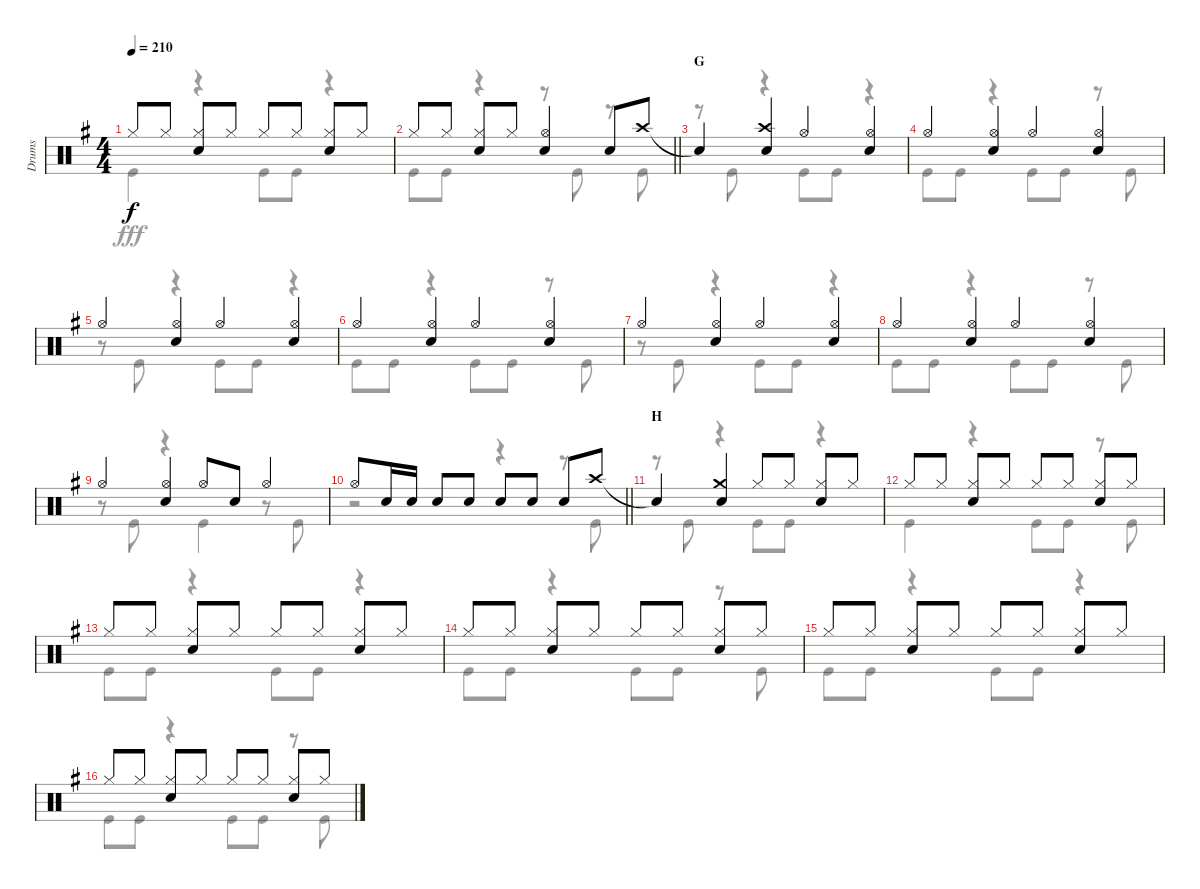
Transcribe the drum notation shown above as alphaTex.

\track ("Drums" "Drums") {instrument percussion}
\staff {score}
\articulation defaults
\voice
\ts (4 4)
\tempo 210
\clef neutral
\ks g "Hi-Hat (closed)".8{dy f} "Hi-Hat (closed)".8
("Hi-Hat (closed)" "Snare (hit) 2").8 "Hi-Hat (closed)".8 "Hi-Hat (closed)".8 "Hi-Hat (closed)".8 ("Hi-Hat (closed)" "Snare (hit) 2").8 "Hi-Hat (closed)".8 |
\barLineRight lightlight "Hi-Hat (closed)".8 "Hi-Hat (closed)".8
("Hi-Hat (closed)" "Snare (hit) 2").8 "Hi-Hat (closed)".8 ("Hi-Hat (open)" "Snare (hit) 2").4 "Snare (hit) 2".8 "Crash high (hit)".8 |
\section ("" "G")
"Snare (hit)"{t}.4 ("Crash high (hit)" "Snare (hit) 2").4 "Hi-Hat (open)".4 ("Hi-Hat (open)" "Snare (hit) 2").4 |
"Hi-Hat (open)".4 ("Hi-Hat (open)" "Snare (hit) 2").4 "Hi-Hat (open)".4 ("Hi-Hat (open)" "Snare (hit) 2").4 |
"Hi-Hat (open)".4 ("Hi-Hat (open)" "Snare (hit) 2").4 "Hi-Hat (open)".4 ("Hi-Hat (open)" "Snare (hit) 2").4 |
"Hi-Hat (open)".4 ("Hi-Hat (open)" "Snare (hit) 2").4 "Hi-Hat (open)".4 ("Hi-Hat (open)" "Snare (hit) 2").4 |
"Hi-Hat (open)".4 ("Hi-Hat (open)" "Snare (hit) 2").4 "Hi-Hat (open)".4 ("Hi-Hat (open)" "Snare (hit) 2").4 |
"Hi-Hat (open)".4 ("Hi-Hat (open)" "Snare (hit) 2").4 "Hi-Hat (open)".4 ("Hi-Hat (open)" "Snare (hit) 2").4 |
"Hi-Hat (open)".4 ("Hi-Hat (open)" "Snare (hit) 2").4 "Hi-Hat (open)".8 "Snare (hit) 2".8 "Hi-Hat (open)".4 |
\barLineRight lightlight "Hi-Hat (open)".8 "Snare (hit) 2".16 "Snare (hit) 2".16 "Snare (hit) 2".8 "Snare (hit) 2".8 "Snare (hit) 2".8 "Snare (hit) 2".8 "Snare (hit) 2".8 "Crash high (hit)".8
|
\section ("" "H")
"Snare (hit)"{t}.4 ("Crash medium (hit)" "Snare (hit) 2").4 "Hi-Hat (closed)".8 "Hi-Hat (closed)".8 ("Hi-Hat (closed)" "Snare (hit) 2").8 "Hi-Hat (closed)".8 |
"Hi-Hat (closed)".8 "Hi-Hat (closed)".8 ("Hi-Hat (closed)" "Snare (hit) 2").8 "Hi-Hat (closed)".8 "Hi-Hat (closed)".8 "Hi-Hat (closed)".8 ("Hi-Hat (closed)" "Snare (hit) 2").8 "Hi-Hat (closed)".8 |
"Hi-Hat (closed)".8 "Hi-Hat (closed)".8 ("Hi-Hat (closed)" "Snare (hit) 2").8 "Hi-Hat (closed)".8 "Hi-Hat (closed)".8 "Hi-Hat (closed)".8 ("Hi-Hat (closed)" "Snare (hit) 2").8 "Hi-Hat (closed)".8 |
"Hi-Hat (closed)".8 "Hi-Hat (closed)".8 ("Hi-Hat (closed)" "Snare (hit) 2").8 "Hi-Hat (closed)".8 "Hi-Hat (closed)".8 "Hi-Hat (closed)".8 ("Hi-Hat (closed)" "Snare (hit) 2").8 "Hi-Hat (closed)".8 |
"Hi-Hat (closed)".8 "Hi-Hat (closed)".8 ("Hi-Hat (closed)" "Snare (hit) 2").8 "Hi-Hat (closed)".8 "Hi-Hat (closed)".8 "Hi-Hat (closed)".8 ("Hi-Hat (closed)" "Snare (hit) 2").8 "Hi-Hat (closed)".8 |
"Hi-Hat (closed)".8 "Hi-Hat (closed)".8 ("Hi-Hat (closed)" "Snare (hit) 2").8 "Hi-Hat (closed)".8 "Hi-Hat (closed)".8 "Hi-Hat (closed)".8 ("Hi-Hat (closed)" "Snare (hit) 2").8 "Hi-Hat (closed)".8
\voice
\clef neutral
\ottava regular
\simile none
\ks g "Kick (hit)".4{dy fff}
r.4 "Kick (hit)".8 "Kick (hit)".8 r.4 |
\barLineRight lightlight "Kick (hit)".8 "Kick (hit)".8
r.4 r.8 "Kick (hit)".8 r.8 "Kick (hit)".8 |
r.8 "Kick (hit)".8 r.4 "Kick (hit)".8 "Kick (hit)".8 r.4 |
"Kick (hit)".8 "Kick (hit)".8 r.4 "Kick (hit)".8 "Kick (hit)".8 r.8 "Kick (hit)".8 |
r.8 "Kick (hit)".8 r.4 "Kick (hit)".8 "Kick (hit)".8 r.4 |
"Kick (hit)".8 "Kick (hit)".8 r.4 "Kick (hit)".8 "Kick (hit)".8 r.8 "Kick (hit)".8 |
r.8 "Kick (hit)".8 r.4 "Kick (hit)".8 "Kick (hit)".8 r.4 |
"Kick (hit)".8 "Kick (hit)".8 r.4 "Kick (hit)".8 "Kick (hit)".8 r.8 "Kick (hit)".8 |
r.8 "Kick (hit)".8 r.4 "Kick (hit)".4 r.8 "Kick (hit)".8 |
\barLineRight lightlight
r.2 r.4 r.8 "Kick (hit)".8 |
r.8 "Kick (hit)".8 r.4 "Kick (hit)".8 "Kick (hit)".8 r.4 |
"Kick (hit)".4 r.4 "Kick (hit)".8 "Kick (hit)".8 r.8 "Kick (hit)".8 |
"Kick (hit)".8 "Kick (hit)".8 r.4 "Kick (hit)".8 "Kick (hit)".8 r.4 |
"Kick (hit)".8 "Kick (hit)".8 r.4 "Kick (hit)".8 "Kick (hit)".8 r.8 "Kick (hit)".8 |
"Kick (hit)".8 "Kick (hit)".8 r.4 "Kick (hit)".8 "Kick (hit)".8 r.4 |
"Kick (hit)".8 "Kick (hit)".8 r.4 "Kick (hit)".8 "Kick (hit)".8 r.8 "Kick (hit)".8
